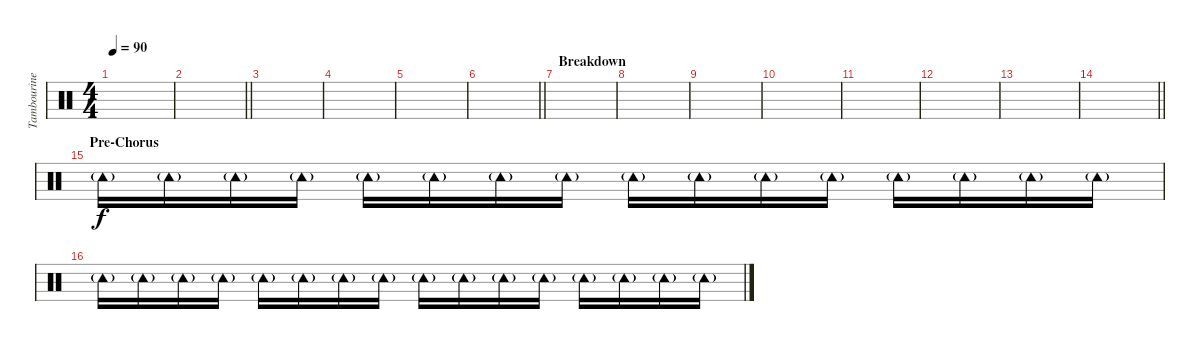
\track ("Tambourine" "Tambourine") {instrument percussion}
\staff {score}
\articulation defaults
\ts (4 4)
\tempo 90
\clef neutral
\ks c
|
\barLineRight lightlight
|
|
|
|
\barLineRight lightlight
|
\section ("" "Breakdown")
|
|
|
|
|
|
|
\barLineRight lightlight
|
\section ("" "Pre-Chorus")
"Tambourine (hit)"{g}.16 "Tambourine (hit)"{g}.16 "Tambourine (hit)"{g}.16 "Tambourine (hit)"{g}.16 "Tambourine (hit)"{g}.16 "Tambourine (hit)"{g}.16 "Tambourine (hit)"{g}.16 "Tambourine (hit)"{g}.16 "Tambourine (hit)"{g}.16 "Tambourine (hit)"{g}.16 "Tambourine (hit)"{g}.16 "Tambourine (hit)"{g}.16 "Tambourine (hit)"{g}.16 "Tambourine (hit)"{g}.16 "Tambourine (hit)"{g}.16 "Tambourine (hit)"{g}.16 |
"Tambourine (hit)"{g}.16 "Tambourine (hit)"{g}.16 "Tambourine (hit)"{g}.16 "Tambourine (hit)"{g}.16 "Tambourine (hit)"{g}.16 "Tambourine (hit)"{g}.16 "Tambourine (hit)"{g}.16 "Tambourine (hit)"{g}.16 "Tambourine (hit)"{g}.16 "Tambourine (hit)"{g}.16 "Tambourine (hit)"{g}.16 "Tambourine (hit)"{g}.16 "Tambourine (hit)"{g}.16 "Tambourine (hit)"{g}.16 "Tambourine (hit)"{g}.16 "Tambourine (hit)"{g}.16
